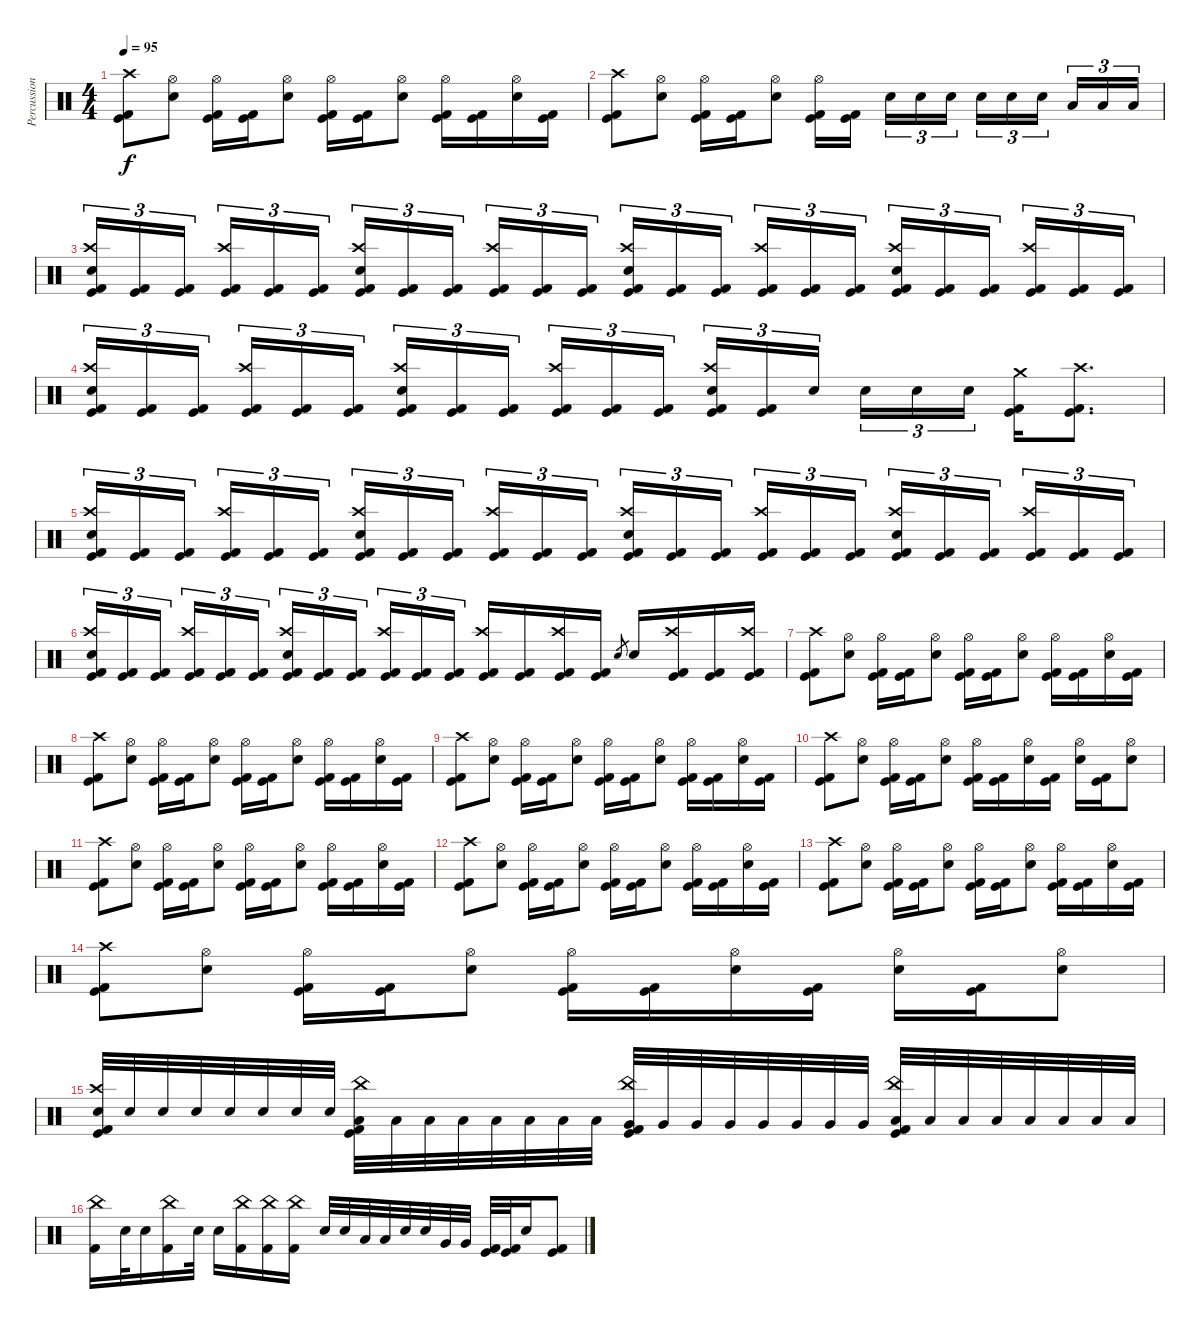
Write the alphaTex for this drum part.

\track ("Percussion" "Percussion") {instrument percussion}
\staff {score}
\articulation defaults
\ts (4 4)
\tempo 95
\clef neutral
\ks c
("Kick (hit) 2" "Crash high (hit)" "Kick (hit)").8{dy f} ("Electric Snare (hit)" "Hi-Hat (open)").8 ("Kick (hit) 2" "Hi-Hat (open)" "Kick (hit)").16 ("Kick (hit) 2" "Kick (hit)").16 ("Electric Snare (hit)" "Hi-Hat (open)").8 ("Kick (hit) 2" "Hi-Hat (open)" "Kick (hit)").16 ("Kick (hit) 2" "Kick (hit)").16 ("Electric Snare (hit)" "Hi-Hat (open)").8 ("Kick (hit) 2" "Hi-Hat (open)" "Kick (hit)").16 ("Kick (hit) 2" "Kick (hit)").16 ("Electric Snare (hit)" "Hi-Hat (open)").16 ("Kick (hit) 2" "Kick (hit)").16 |
("Kick (hit) 2" "Crash high (hit)" "Kick (hit)").8 ("Electric Snare (hit)" "Hi-Hat (open)").8 ("Kick (hit) 2" "Hi-Hat (open)" "Kick (hit)").16 ("Kick (hit) 2" "Kick (hit)").16 ("Electric Snare (hit)" "Hi-Hat (open)").8 ("Kick (hit) 2" "Hi-Hat (open)" "Kick (hit)").16 ("Kick (hit) 2" "Kick (hit)").16{beam splitsecondary} "Electric Snare (hit)".16{tu (3 2)} "Electric Snare (hit)".16{tu (3 2)} "Electric Snare (hit)".16{tu (3 2)} "Electric Snare (hit)".16{tu (3 2)} "Electric Snare (hit)".16{tu (3 2)} "Electric Snare (hit)".16{tu (3 2) beam splitsecondary} "Low Tom (hit)".16{tu (3 2)} "Low Tom (hit)".16{tu (3 2)} "Low Tom (hit)".16{tu (3 2)} |
("Kick (hit) 2" "Electric Snare (hit)" "Crash high (hit)" "Kick (hit)").16{tu (3 2)} ("Kick (hit) 2" "Kick (hit)").16{tu (3 2)} ("Kick (hit) 2" "Kick (hit)").16{tu (3 2) beam splitsecondary} ("Kick (hit) 2" "Crash high (hit)" "Kick (hit)").16{tu (3 2)} ("Kick (hit) 2" "Kick (hit)").16{tu (3 2)} ("Kick (hit) 2" "Kick (hit)").16{tu (3 2)} ("Kick (hit) 2" "Electric Snare (hit)" "Crash high (hit)" "Kick (hit)").16{tu (3 2)} ("Kick (hit) 2" "Kick (hit)").16{tu (3 2)} ("Kick (hit) 2" "Kick (hit)").16{tu (3 2) beam splitsecondary} ("Kick (hit) 2" "Crash high (hit)" "Kick (hit)").16{tu (3 2)} ("Kick (hit) 2" "Kick (hit)").16{tu (3 2)} ("Kick (hit) 2" "Kick (hit)").16{tu (3 2)} ("Kick (hit) 2" "Electric Snare (hit)" "Crash high (hit)" "Kick (hit)").16{tu (3 2)} ("Kick (hit) 2" "Kick (hit)").16{tu (3 2)} ("Kick (hit) 2" "Kick (hit)").16{tu (3 2) beam splitsecondary} ("Kick (hit) 2" "Crash high (hit)" "Kick (hit)").16{tu (3 2)} ("Kick (hit) 2" "Kick (hit)").16{tu (3 2)} ("Kick (hit) 2" "Kick (hit)").16{tu (3 2)} ("Kick (hit) 2" "Electric Snare (hit)" "Crash high (hit)" "Kick (hit)").16{tu (3 2)} ("Kick (hit) 2" "Kick (hit)").16{tu (3 2)} ("Kick (hit) 2" "Kick (hit)").16{tu (3 2) beam splitsecondary} ("Kick (hit) 2" "Crash high (hit)" "Kick (hit)").16{tu (3 2)} ("Kick (hit) 2" "Kick (hit)").16{tu (3 2)} ("Kick (hit) 2" "Kick (hit)").16{tu (3 2)} |
("Kick (hit) 2" "Electric Snare (hit)" "Crash high (hit)" "Kick (hit)").16{tu (3 2)} ("Kick (hit) 2" "Kick (hit)").16{tu (3 2)} ("Kick (hit) 2" "Kick (hit)").16{tu (3 2) beam splitsecondary} ("Kick (hit) 2" "Crash high (hit)" "Kick (hit)").16{tu (3 2)} ("Kick (hit) 2" "Kick (hit)").16{tu (3 2)} ("Kick (hit) 2" "Kick (hit)").16{tu (3 2)} ("Kick (hit) 2" "Electric Snare (hit)" "Crash high (hit)" "Kick (hit)").16{tu (3 2)} ("Kick (hit) 2" "Kick (hit)").16{tu (3 2)} ("Kick (hit) 2" "Kick (hit)").16{tu (3 2) beam splitsecondary} ("Kick (hit) 2" "Crash high (hit)" "Kick (hit)").16{tu (3 2)} ("Kick (hit) 2" "Kick (hit)").16{tu (3 2)} ("Kick (hit) 2" "Kick (hit)").16{tu (3 2)} ("Kick (hit) 2" "Electric Snare (hit)" "Crash high (hit)" "Kick (hit)").16{tu (3 2)} ("Kick (hit) 2" "Kick (hit)").16{tu (3 2)} "Electric Snare (hit)".16{tu (3 2) beam splitsecondary} "Electric Snare (hit)".16{tu (3 2)} "Electric Snare (hit)".16{tu (3 2)} "Electric Snare (hit)".16{tu (3 2)} ("Kick (hit) 2" "Crash medium (hit)" "Kick (hit)").16 ("Kick (hit) 2" "Crash high (hit)" "Kick (hit)").8{d} |
("Kick (hit) 2" "Electric Snare (hit)" "Crash high (hit)" "Kick (hit)").16{tu (3 2)} ("Kick (hit) 2" "Kick (hit)").16{tu (3 2)} ("Kick (hit) 2" "Kick (hit)").16{tu (3 2) beam splitsecondary} ("Kick (hit) 2" "Crash high (hit)" "Kick (hit)").16{tu (3 2)} ("Kick (hit) 2" "Kick (hit)").16{tu (3 2)} ("Kick (hit) 2" "Kick (hit)").16{tu (3 2)} ("Kick (hit) 2" "Electric Snare (hit)" "Crash high (hit)" "Kick (hit)").16{tu (3 2)} ("Kick (hit) 2" "Kick (hit)").16{tu (3 2)} ("Kick (hit) 2" "Kick (hit)").16{tu (3 2) beam splitsecondary} ("Kick (hit) 2" "Crash high (hit)" "Kick (hit)").16{tu (3 2)} ("Kick (hit) 2" "Kick (hit)").16{tu (3 2)} ("Kick (hit) 2" "Kick (hit)").16{tu (3 2)} ("Kick (hit) 2" "Electric Snare (hit)" "Crash high (hit)" "Kick (hit)").16{tu (3 2)} ("Kick (hit) 2" "Kick (hit)").16{tu (3 2)} ("Kick (hit) 2" "Kick (hit)").16{tu (3 2) beam splitsecondary} ("Kick (hit) 2" "Crash high (hit)" "Kick (hit)").16{tu (3 2)} ("Kick (hit) 2" "Kick (hit)").16{tu (3 2)} ("Kick (hit) 2" "Kick (hit)").16{tu (3 2)} ("Kick (hit) 2" "Electric Snare (hit)" "Crash high (hit)" "Kick (hit)").16{tu (3 2)} ("Kick (hit) 2" "Kick (hit)").16{tu (3 2)} ("Kick (hit) 2" "Kick (hit)").16{tu (3 2) beam splitsecondary} ("Kick (hit) 2" "Crash high (hit)" "Kick (hit)").16{tu (3 2)} ("Kick (hit) 2" "Kick (hit)").16{tu (3 2)} ("Kick (hit) 2" "Kick (hit)").16{tu (3 2)} |
("Kick (hit) 2" "Electric Snare (hit)" "Crash high (hit)" "Kick (hit)").16{tu (3 2)} ("Kick (hit) 2" "Kick (hit)").16{tu (3 2)} ("Kick (hit) 2" "Kick (hit)").16{tu (3 2) beam splitsecondary} ("Kick (hit) 2" "Crash high (hit)" "Kick (hit)").16{tu (3 2)} ("Kick (hit) 2" "Kick (hit)").16{tu (3 2)} ("Kick (hit) 2" "Kick (hit)").16{tu (3 2)} ("Kick (hit) 2" "Electric Snare (hit)" "Crash high (hit)" "Kick (hit)").16{tu (3 2)} ("Kick (hit) 2" "Kick (hit)").16{tu (3 2)} ("Kick (hit) 2" "Kick (hit)").16{tu (3 2) beam splitsecondary} ("Kick (hit) 2" "Crash high (hit)" "Kick (hit)").16{tu (3 2)} ("Kick (hit) 2" "Kick (hit)").16{tu (3 2)} ("Kick (hit) 2" "Kick (hit)").16{tu (3 2)} ("Kick (hit) 2" "Crash high (hit)" "Kick (hit)").16 ("Kick (hit) 2" "Kick (hit)").16 ("Kick (hit) 2" "Crash high (hit)" "Kick (hit)").16 ("Kick (hit) 2" "Kick (hit)").16 "Electric Snare (hit)".8{gr} "Electric Snare (hit)".16 ("Kick (hit) 2" "Crash high (hit)" "Kick (hit)").16 ("Kick (hit) 2" "Kick (hit)").16 ("Kick (hit) 2" "Crash high (hit)" "Kick (hit)").16 |
("Kick (hit) 2" "Crash high (hit)" "Kick (hit)").8 ("Electric Snare (hit)" "Hi-Hat (open)").8 ("Kick (hit) 2" "Hi-Hat (open)" "Kick (hit)").16 ("Kick (hit) 2" "Kick (hit)").16 ("Electric Snare (hit)" "Hi-Hat (open)").8 ("Kick (hit) 2" "Hi-Hat (open)" "Kick (hit)").16 ("Kick (hit) 2" "Kick (hit)").16 ("Electric Snare (hit)" "Hi-Hat (open)").8 ("Kick (hit) 2" "Hi-Hat (open)" "Kick (hit)").16 ("Kick (hit) 2" "Kick (hit)").16 ("Electric Snare (hit)" "Hi-Hat (open)").16 ("Kick (hit) 2" "Kick (hit)").16 |
("Kick (hit) 2" "Crash high (hit)" "Kick (hit)").8 ("Electric Snare (hit)" "Hi-Hat (open)").8 ("Kick (hit) 2" "Hi-Hat (open)" "Kick (hit)").16 ("Kick (hit) 2" "Kick (hit)").16 ("Electric Snare (hit)" "Hi-Hat (open)").8 ("Kick (hit) 2" "Hi-Hat (open)" "Kick (hit)").16 ("Kick (hit) 2" "Kick (hit)").16 ("Electric Snare (hit)" "Hi-Hat (open)").8 ("Kick (hit) 2" "Hi-Hat (open)" "Kick (hit)").16 ("Kick (hit) 2" "Kick (hit)").16 ("Electric Snare (hit)" "Hi-Hat (open)").16 ("Kick (hit) 2" "Kick (hit)").16 |
("Kick (hit) 2" "Crash high (hit)" "Kick (hit)").8 ("Electric Snare (hit)" "Hi-Hat (open)").8 ("Kick (hit) 2" "Hi-Hat (open)" "Kick (hit)").16 ("Kick (hit) 2" "Kick (hit)").16 ("Electric Snare (hit)" "Hi-Hat (open)").8 ("Kick (hit) 2" "Hi-Hat (open)" "Kick (hit)").16 ("Kick (hit) 2" "Kick (hit)").16 ("Electric Snare (hit)" "Hi-Hat (open)").8 ("Kick (hit) 2" "Hi-Hat (open)" "Kick (hit)").16 ("Kick (hit) 2" "Kick (hit)").16 ("Electric Snare (hit)" "Hi-Hat (open)").16 ("Kick (hit) 2" "Kick (hit)").16 |
("Kick (hit) 2" "Crash high (hit)" "Kick (hit)").8 ("Electric Snare (hit)" "Hi-Hat (open)").8 ("Kick (hit) 2" "Hi-Hat (open)" "Kick (hit)").16 ("Kick (hit) 2" "Kick (hit)").16 ("Electric Snare (hit)" "Hi-Hat (open)").8 ("Kick (hit) 2" "Hi-Hat (open)" "Kick (hit)").16 ("Kick (hit) 2" "Kick (hit)").16 ("Electric Snare (hit)" "Hi-Hat (open)").16 ("Kick (hit) 2" "Kick (hit)").16 ("Electric Snare (hit)" "Hi-Hat (open)").16 ("Kick (hit) 2" "Kick (hit)").16 ("Electric Snare (hit)" "Hi-Hat (open)").8 |
("Kick (hit) 2" "Crash high (hit)" "Kick (hit)").8 ("Electric Snare (hit)" "Hi-Hat (open)").8 ("Kick (hit) 2" "Hi-Hat (open)" "Kick (hit)").16 ("Kick (hit) 2" "Kick (hit)").16 ("Electric Snare (hit)" "Hi-Hat (open)").8 ("Kick (hit) 2" "Hi-Hat (open)" "Kick (hit)").16 ("Kick (hit) 2" "Kick (hit)").16 ("Electric Snare (hit)" "Hi-Hat (open)").8 ("Kick (hit) 2" "Hi-Hat (open)" "Kick (hit)").16 ("Kick (hit) 2" "Kick (hit)").16 ("Electric Snare (hit)" "Hi-Hat (open)").16 ("Kick (hit) 2" "Kick (hit)").16 |
("Kick (hit) 2" "Crash high (hit)" "Kick (hit)").8 ("Electric Snare (hit)" "Hi-Hat (open)").8 ("Kick (hit) 2" "Hi-Hat (open)" "Kick (hit)").16 ("Kick (hit) 2" "Kick (hit)").16 ("Electric Snare (hit)" "Hi-Hat (open)").8 ("Kick (hit) 2" "Hi-Hat (open)" "Kick (hit)").16 ("Kick (hit) 2" "Kick (hit)").16 ("Electric Snare (hit)" "Hi-Hat (open)").8 ("Kick (hit) 2" "Hi-Hat (open)" "Kick (hit)").16 ("Kick (hit) 2" "Kick (hit)").16 ("Electric Snare (hit)" "Hi-Hat (open)").16 ("Kick (hit) 2" "Kick (hit)").16 |
("Kick (hit) 2" "Crash high (hit)" "Kick (hit)").8 ("Electric Snare (hit)" "Hi-Hat (open)").8 ("Kick (hit) 2" "Hi-Hat (open)" "Kick (hit)").16 ("Kick (hit) 2" "Kick (hit)").16 ("Electric Snare (hit)" "Hi-Hat (open)").8 ("Kick (hit) 2" "Hi-Hat (open)" "Kick (hit)").16 ("Kick (hit) 2" "Kick (hit)").16 ("Electric Snare (hit)" "Hi-Hat (open)").8 ("Kick (hit) 2" "Hi-Hat (open)" "Kick (hit)").16 ("Kick (hit) 2" "Kick (hit)").16 ("Electric Snare (hit)" "Hi-Hat (open)").16 ("Kick (hit) 2" "Kick (hit)").16 |
("Kick (hit) 2" "Crash high (hit)" "Kick (hit)").8 ("Electric Snare (hit)" "Hi-Hat (open)").8 ("Kick (hit) 2" "Hi-Hat (open)" "Kick (hit)").16 ("Kick (hit) 2" "Kick (hit)").16 ("Electric Snare (hit)" "Hi-Hat (open)").8 ("Kick (hit) 2" "Hi-Hat (open)" "Kick (hit)").16 ("Kick (hit) 2" "Kick (hit)").16 ("Electric Snare (hit)" "Hi-Hat (open)").16 ("Kick (hit) 2" "Kick (hit)").16 ("Electric Snare (hit)" "Hi-Hat (open)").16 ("Kick (hit) 2" "Kick (hit)").16 ("Electric Snare (hit)" "Hi-Hat (open)").8 |
("Electric Snare (hit)" "Kick (hit) 2" "Kick (hit)" "Crash high (hit)").32 "Electric Snare (hit)".32 "Electric Snare (hit)".32 "Electric Snare (hit)".32 "Electric Snare (hit)".32 "Electric Snare (hit)".32 "Electric Snare (hit)".32 "Electric Snare (hit)".32 ("Low Tom (hit)" "Kick (hit) 2" "Kick (hit)" "China (hit)").32 "Low Tom (hit)".32 "Low Tom (hit)".32 "Low Tom (hit)".32 "Low Tom (hit)".32 "Low Tom (hit)".32 "Low Tom (hit)".32 "Low Tom (hit)".32 ("Very Low Tom (hit)" "Kick (hit) 2" "Kick (hit)" "China (hit)").32 "Very Low Tom (hit)".32 "Very Low Tom (hit)".32 "Very Low Tom (hit)".32 "Very Low Tom (hit)".32 "Very Low Tom (hit)".32 "Very Low Tom (hit)".32 "Very Low Tom (hit)".32 ("Low Floor Tom (hit)" "Kick (hit) 2" "Kick (hit)" "China (hit)").32 "Low Floor Tom (hit)".32 "Low Floor Tom (hit)".32 "Low Floor Tom (hit)".32 "Low Floor Tom (hit)".32 "Low Floor Tom (hit)".32 "Low Floor Tom (hit)".32 "Low Floor Tom (hit)".32 |
("Kick (hit) 2" "China (hit)").16 "Electric Snare (hit)".32 "Electric Snare (hit)".16 ("Kick (hit) 2" "China (hit)").16 "Electric Snare (hit)".32 "Electric Snare (hit)".16 ("Kick (hit) 2" "China (hit)").16 ("Kick (hit) 2" "China (hit)").16 ("Kick (hit) 2" "China (hit)").16 "Electric Snare (hit)".32 "Electric Snare (hit)".32 "Low Tom (hit)".32 "Low Tom (hit)".32 "Electric Snare (hit)".32 "Electric Snare (hit)".32 "Very Low Tom (hit)".32 "Very Low Tom (hit)".32 ("Kick (hit) 2" "Kick (hit)").32 ("Kick (hit) 2" "Kick (hit)").32 "Electric Snare (hit)".16 ("Kick (hit) 2" "Kick (hit)").8
